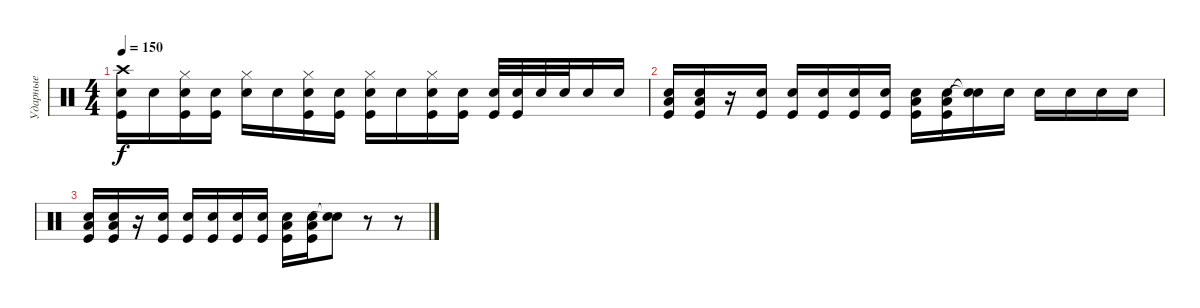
\track ("Ударные" "Ударные") {instrument percussion}
\staff {score}
\articulation defaults
\ts (4 4)
\tempo 150
\clef neutral
\ks c
("Crash high (hit)" "Electric Snare (hit)" "Kick (hit)").16{dy f} "Electric Snare (hit)".16 ("Hi-Hat (closed)" "Electric Snare (hit)" "Kick (hit)").16 ("Electric Snare (hit)" "Kick (hit)").16 ("Hi-Hat (closed)" "Electric Snare (hit)").16 "Electric Snare (hit)".16 ("Hi-Hat (closed)" "Electric Snare (hit)" "Kick (hit)").16 ("Electric Snare (hit)" "Kick (hit)").16 ("Hi-Hat (closed)" "Electric Snare (hit)" "Kick (hit)").16 "Electric Snare (hit)".16 ("Hi-Hat (closed)" "Electric Snare (hit)" "Kick (hit)").16 ("Electric Snare (hit)" "Kick (hit)").16 ("Electric Snare (hit)" "Kick (hit)").32 ("Electric Snare (hit)" "Kick (hit)").32 "Electric Snare (hit)".32 "Electric Snare (hit)".32 "Electric Snare (hit)".16 "Electric Snare (hit)".16 |
("Low Tom (hit)" "Electric Snare (hit)" "Kick (hit)").16 ("Low Tom (hit)" "Electric Snare (hit)" "Kick (hit)").16 r.16 ("Electric Snare (hit)" "Kick (hit)").16 ("Electric Snare (hit)" "Kick (hit)").16 ("Electric Snare (hit)" "Kick (hit)").16 ("Electric Snare (hit)" "Kick (hit)").16 ("Electric Snare (hit)" "Kick (hit)").16 ("Low Tom (hit)" "Electric Snare (hit)" "Kick (hit)").16 ("Low Tom (hit)" "Electric Snare (hit)" "Kick (hit)").16 ("Snare (hit)"{t} "Snare (hit)"{t}).16 "Electric Snare (hit)".16 "Electric Snare (hit)".16 "Electric Snare (hit)".16 "Electric Snare (hit)".16 "Electric Snare (hit)".16 |
("Low Tom (hit)" "Electric Snare (hit)" "Kick (hit)").16 ("Low Tom (hit)" "Electric Snare (hit)" "Kick (hit)").16 r.16 ("Electric Snare (hit)" "Kick (hit)").16 ("Electric Snare (hit)" "Kick (hit)").16 ("Electric Snare (hit)" "Kick (hit)").16 ("Electric Snare (hit)" "Kick (hit)").16 ("Electric Snare (hit)" "Kick (hit)").16 ("Low Tom (hit)" "Electric Snare (hit)" "Kick (hit)").16 ("Low Tom (hit)" "Electric Snare (hit)" "Kick (hit)").16 ("Snare (hit)"{t} "Snare (hit)"{t}).8 r.8 r.8
